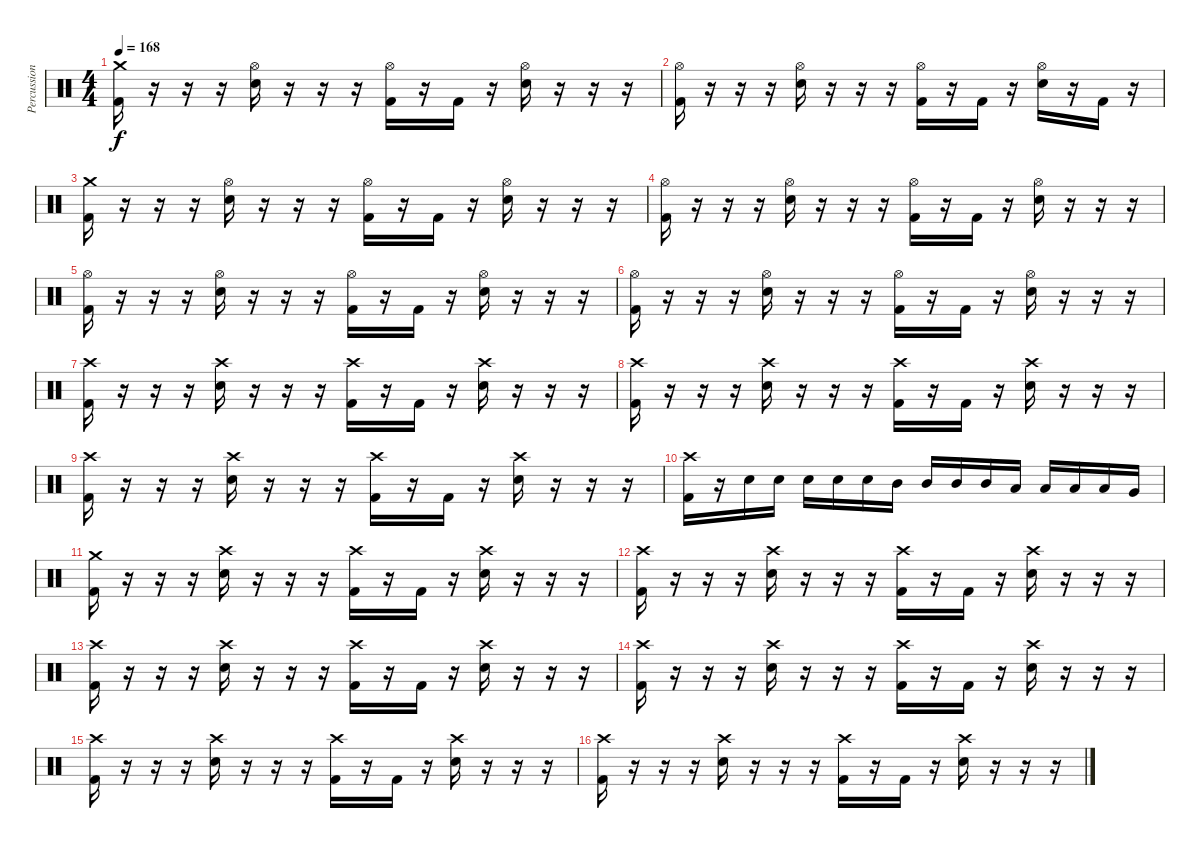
\track ("Percussion" "Percussion") {instrument percussion}
\staff {score}
\articulation defaults
\ts (4 4)
\tempo 168
\clef neutral
\ks c
("Crash medium (hit)" "Kick (hit) 2").16{dy f} r.16 r.16 r.16 ("Hi-Hat (open)" "Snare (hit) 2").16 r.16 r.16 r.16 ("Hi-Hat (open)" "Kick (hit) 2").16 r.16 "Kick (hit) 2".16 r.16 ("Hi-Hat (open)" "Snare (hit) 2").16 r.16 r.16 r.16 |
("Hi-Hat (open)" "Kick (hit) 2").16 r.16 r.16 r.16 ("Hi-Hat (open)" "Snare (hit) 2").16 r.16 r.16 r.16 ("Hi-Hat (open)" "Kick (hit) 2").16 r.16 "Kick (hit) 2".16 r.16 ("Hi-Hat (open)" "Snare (hit) 2").16 r.16 "Kick (hit) 2".16 r.16 |
("Crash medium (hit)" "Kick (hit) 2").16 r.16 r.16 r.16 ("Hi-Hat (open)" "Snare (hit) 2").16 r.16 r.16 r.16 ("Hi-Hat (open)" "Kick (hit) 2").16 r.16 "Kick (hit) 2".16 r.16 ("Hi-Hat (open)" "Snare (hit) 2").16 r.16 r.16 r.16 |
("Hi-Hat (open)" "Kick (hit) 2").16 r.16 r.16 r.16 ("Hi-Hat (open)" "Snare (hit) 2").16 r.16 r.16 r.16 ("Hi-Hat (open)" "Kick (hit) 2").16 r.16 "Kick (hit) 2".16 r.16 ("Hi-Hat (open)" "Snare (hit) 2").16 r.16 r.16 r.16 |
("Hi-Hat (open)" "Kick (hit) 2").16 r.16 r.16 r.16 ("Hi-Hat (open)" "Snare (hit) 2").16 r.16 r.16 r.16 ("Hi-Hat (open)" "Kick (hit) 2").16 r.16 "Kick (hit) 2".16 r.16 ("Hi-Hat (open)" "Snare (hit) 2").16 r.16 r.16 r.16 |
("Hi-Hat (open)" "Kick (hit) 2").16 r.16 r.16 r.16 ("Hi-Hat (open)" "Snare (hit) 2").16 r.16 r.16 r.16 ("Hi-Hat (open)" "Kick (hit) 2").16 r.16 "Kick (hit) 2".16 r.16 ("Hi-Hat (open)" "Snare (hit) 2").16 r.16 r.16 r.16 |
("Crash high (hit)" "Kick (hit) 2").16 r.16 r.16 r.16 ("Crash high (hit)" "Snare (hit) 2").16 r.16 r.16 r.16 ("Crash high (hit)" "Kick (hit) 2").16 r.16 "Kick (hit) 2".16 r.16 ("Crash high (hit)" "Snare (hit) 2").16 r.16 r.16 r.16 |
("Crash high (hit)" "Kick (hit) 2").16 r.16 r.16 r.16 ("Crash high (hit)" "Snare (hit) 2").16 r.16 r.16 r.16 ("Crash high (hit)" "Kick (hit) 2").16 r.16 "Kick (hit) 2".16 r.16 ("Crash high (hit)" "Snare (hit) 2").16 r.16 r.16 r.16 |
("Crash high (hit)" "Kick (hit) 2").16 r.16 r.16 r.16 ("Crash high (hit)" "Snare (hit) 2").16 r.16 r.16 r.16 ("Crash high (hit)" "Kick (hit) 2").16 r.16 "Kick (hit) 2".16 r.16 ("Crash high (hit)" "Snare (hit) 2").16 r.16 r.16 r.16 |
("Crash high (hit)" "Kick (hit) 2").16 r.16 "Snare (hit) 2".16 "Snare (hit) 2".16 "Snare (hit) 2".16 "Snare (hit) 2".16 "Snare (hit) 2".16 "Mid Tom (hit)".16 "Mid Tom (hit)".16 "Mid Tom (hit)".16 "Mid Tom (hit)".16 "Low Tom (hit)".16 "Low Tom (hit)".16 "Low Tom (hit)".16 "Low Tom (hit)".16 "Very Low Tom (hit)".16 |
("Crash medium (hit)" "Kick (hit) 2").16 r.16 r.16 r.16 ("Crash high (hit)" "Snare (hit) 2").16 r.16 r.16 r.16 ("Crash high (hit)" "Kick (hit) 2").16 r.16 "Kick (hit) 2".16 r.16 ("Crash high (hit)" "Snare (hit) 2").16 r.16 r.16 r.16 |
("Crash high (hit)" "Kick (hit) 2").16 r.16 r.16 r.16 ("Crash high (hit)" "Snare (hit) 2").16 r.16 r.16 r.16 ("Crash high (hit)" "Kick (hit) 2").16 r.16 "Kick (hit) 2".16 r.16 ("Crash high (hit)" "Snare (hit) 2").16 r.16 r.16 r.16 |
("Crash high (hit)" "Kick (hit) 2").16 r.16 r.16 r.16 ("Crash high (hit)" "Snare (hit) 2").16 r.16 r.16 r.16 ("Crash high (hit)" "Kick (hit) 2").16 r.16 "Kick (hit) 2".16 r.16 ("Crash high (hit)" "Snare (hit) 2").16 r.16 r.16 r.16 |
("Crash high (hit)" "Kick (hit) 2").16 r.16 r.16 r.16 ("Crash high (hit)" "Snare (hit) 2").16 r.16 r.16 r.16 ("Crash high (hit)" "Kick (hit) 2").16 r.16 "Kick (hit) 2".16 r.16 ("Crash high (hit)" "Snare (hit) 2").16 r.16 r.16 r.16 |
("Crash high (hit)" "Kick (hit) 2").16 r.16 r.16 r.16 ("Crash high (hit)" "Snare (hit) 2").16 r.16 r.16 r.16 ("Crash high (hit)" "Kick (hit) 2").16 r.16 "Kick (hit) 2".16 r.16 ("Crash high (hit)" "Snare (hit) 2").16 r.16 r.16 r.16 |
("Crash high (hit)" "Kick (hit) 2").16 r.16 r.16 r.16 ("Crash high (hit)" "Snare (hit) 2").16 r.16 r.16 r.16 ("Crash high (hit)" "Kick (hit) 2").16 r.16 "Kick (hit) 2".16 r.16 ("Crash high (hit)" "Snare (hit) 2").16 r.16 r.16 r.16
